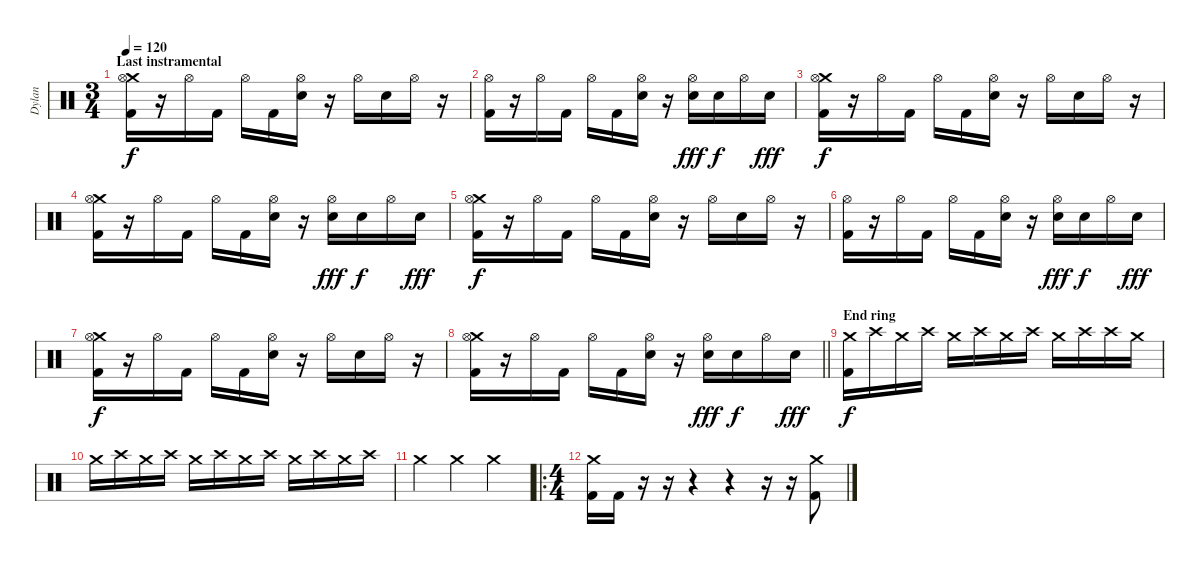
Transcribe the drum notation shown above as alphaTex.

\track ("Dylan" "Dylan") {instrument percussion}
\staff {score}
\articulation defaults
\ts (3 4)
\section ("" "Last instramental")
\tempo 120
\clef neutral
\ks c
("Crash medium (hit)" "Hi-Hat (open)" "Kick (hit) 2").16{dy f} r.16 "Hi-Hat (open)".16 "Kick (hit) 2".16 "Hi-Hat (open)".16 "Kick (hit) 2".16 ("Hi-Hat (open)" "Electric Snare (hit)").16 r.16 "Hi-Hat (open)".16 "Electric Snare (hit)".16 "Hi-Hat (open)".16 r.16 |
("Hi-Hat (open)" "Kick (hit) 2").16 r.16 "Hi-Hat (open)".16 "Kick (hit) 2".16 "Hi-Hat (open)".16 "Kick (hit) 2".16 ("Hi-Hat (open)" "Electric Snare (hit)").16 r.16 ("Hi-Hat (open)" "Electric Snare (hit)").16{dy fff} "Electric Snare (hit)".16{dy f} "Hi-Hat (open)".16 "Electric Snare (hit)".16{dy fff} |
("Crash medium (hit)" "Hi-Hat (open)" "Kick (hit) 2").16{dy f} r.16 "Hi-Hat (open)".16 "Kick (hit) 2".16 "Hi-Hat (open)".16 "Kick (hit) 2".16 ("Hi-Hat (open)" "Electric Snare (hit)").16 r.16 "Hi-Hat (open)".16 "Electric Snare (hit)".16 "Hi-Hat (open)".16 r.16 |
("Crash medium (hit)" "Hi-Hat (open)" "Kick (hit) 2").16 r.16 "Hi-Hat (open)".16 "Kick (hit) 2".16 "Hi-Hat (open)".16 "Kick (hit) 2".16 ("Hi-Hat (open)" "Electric Snare (hit)").16 r.16 ("Hi-Hat (open)" "Electric Snare (hit)").16{dy fff} "Electric Snare (hit)".16{dy f} "Hi-Hat (open)".16 "Electric Snare (hit)".16{dy fff} |
("Crash medium (hit)" "Hi-Hat (open)" "Kick (hit) 2").16{dy f} r.16 "Hi-Hat (open)".16 "Kick (hit) 2".16 "Hi-Hat (open)".16 "Kick (hit) 2".16 ("Hi-Hat (open)" "Electric Snare (hit)").16 r.16 "Hi-Hat (open)".16 "Electric Snare (hit)".16 "Hi-Hat (open)".16 r.16 |
("Hi-Hat (open)" "Kick (hit) 2").16 r.16 "Hi-Hat (open)".16 "Kick (hit) 2".16 "Hi-Hat (open)".16 "Kick (hit) 2".16 ("Hi-Hat (open)" "Electric Snare (hit)").16 r.16 ("Hi-Hat (open)" "Electric Snare (hit)").16{dy fff} "Electric Snare (hit)".16{dy f} "Hi-Hat (open)".16 "Electric Snare (hit)".16{dy fff} |
("Crash medium (hit)" "Hi-Hat (open)" "Kick (hit) 2").16{dy f} r.16 "Hi-Hat (open)".16 "Kick (hit) 2".16 "Hi-Hat (open)".16 "Kick (hit) 2".16 ("Hi-Hat (open)" "Electric Snare (hit)").16 r.16 "Hi-Hat (open)".16 "Electric Snare (hit)".16 "Hi-Hat (open)".16 r.16 |
\barLineRight lightlight
("Crash medium (hit)" "Hi-Hat (open)" "Kick (hit) 2").16 r.16 "Hi-Hat (open)".16 "Kick (hit) 2".16 "Hi-Hat (open)".16 "Kick (hit) 2".16 ("Hi-Hat (open)" "Electric Snare (hit)").16 r.16 ("Hi-Hat (open)" "Electric Snare (hit)").16{dy fff} "Electric Snare (hit)".16{dy f} "Hi-Hat (open)".16 "Electric Snare (hit)".16{dy fff} |
\section ("" "End ring")
("Crash medium (hit)" "Kick (hit) 2").16{dy f} "Crash high (hit)".16 "Crash medium (hit)".16 "Crash high (hit)".16 "Crash medium (hit)".16 "Crash high (hit)".16 "Crash medium (hit)".16 "Crash high (hit)".16 "Crash medium (hit)".16 "Crash high (hit)".16 "Crash high (hit)".16 "Crash medium (hit)".16 |
"Crash medium (hit)".16 "Crash high (hit)".16 "Crash medium (hit)".16 "Crash high (hit)".16 "Crash medium (hit)".16 "Crash high (hit)".16 "Crash medium (hit)".16 "Crash high (hit)".16 "Crash medium (hit)".16 "Crash high (hit)".16 "Crash medium (hit)".16 "Crash high (hit)".16 |
"Crash medium (hit)".4 "Crash medium (hit)".4 "Crash medium (hit)".4 |
\ro
\ts (4 4)
("Crash medium (hit)" "Kick (hit) 2").16 "Kick (hit) 2".16 r.16 r.16 r.4 r.4 r.16 r.16 ("Crash medium (hit)" "Kick (hit) 2").8
